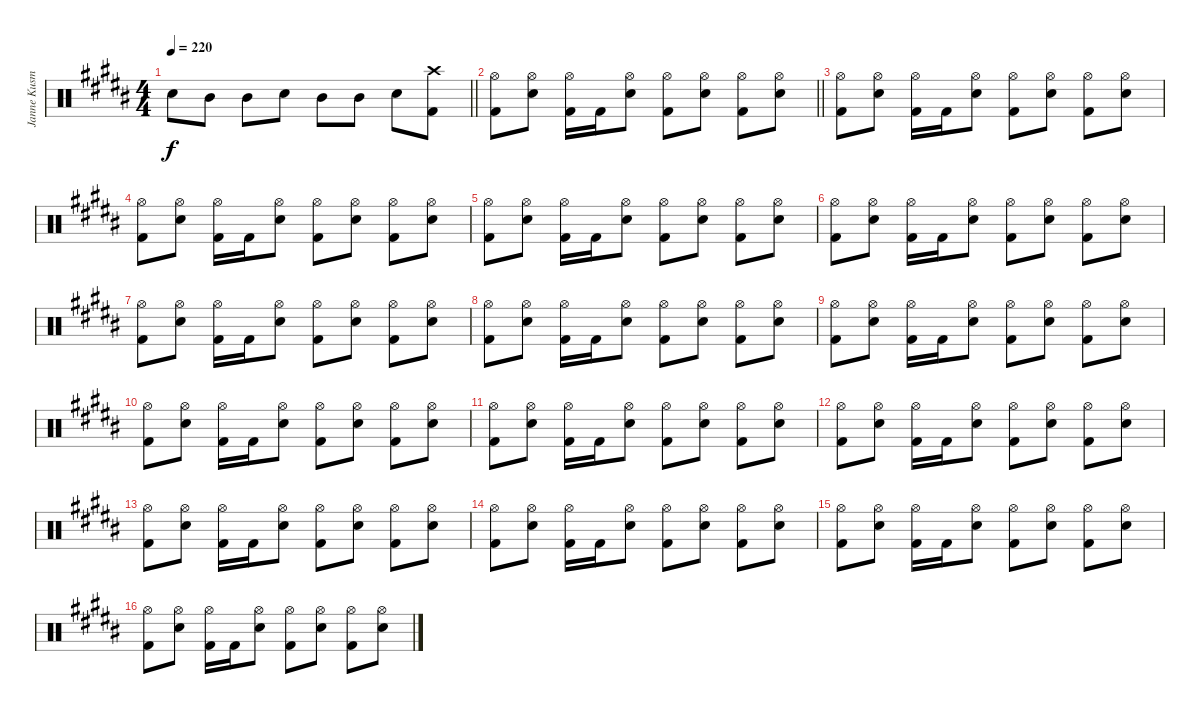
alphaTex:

\track ("Janne Kusmin" "Janne Kusm") {instrument percussion}
\staff {score}
\articulation defaults
\ts (4 4)
\tempo 220
\clef neutral
\barLineRight lightlight
\ks b "Electric Snare (hit)".8{dy f} "Mid Tom (hit)".8 "Mid Tom (hit)".8 "Electric Snare (hit)".8 "Mid Tom (hit)".8 "Mid Tom (hit)".8 "Electric Snare (hit)".8
("Crash high (hit)" "Kick (hit) 2").8 |
\barLineRight lightlight
("Hi-Hat (open)" "Kick (hit) 2").8 ("Hi-Hat (open)" "Electric Snare (hit)").8 ("Hi-Hat (open)" "Kick (hit) 2").16 "Kick (hit) 2".16 ("Hi-Hat (open)" "Electric Snare (hit)").8 ("Hi-Hat (open)" "Kick (hit) 2").8 ("Hi-Hat (open)" "Electric Snare (hit)").8 ("Hi-Hat (open)" "Kick (hit) 2").8 ("Hi-Hat (open)" "Electric Snare (hit)").8 |
("Hi-Hat (open)" "Kick (hit) 2").8 ("Hi-Hat (open)" "Electric Snare (hit)").8 ("Hi-Hat (open)" "Kick (hit) 2").16 "Kick (hit) 2".16 ("Hi-Hat (open)" "Electric Snare (hit)").8 ("Hi-Hat (open)" "Kick (hit) 2").8 ("Hi-Hat (open)" "Electric Snare (hit)").8 ("Hi-Hat (open)" "Kick (hit) 2").8 ("Hi-Hat (open)" "Electric Snare (hit)").8 |
("Hi-Hat (open)" "Kick (hit) 2").8 ("Hi-Hat (open)" "Electric Snare (hit)").8 ("Hi-Hat (open)" "Kick (hit) 2").16 "Kick (hit) 2".16 ("Hi-Hat (open)" "Electric Snare (hit)").8 ("Hi-Hat (open)" "Kick (hit) 2").8 ("Hi-Hat (open)" "Electric Snare (hit)").8 ("Hi-Hat (open)" "Kick (hit) 2").8 ("Hi-Hat (open)" "Electric Snare (hit)").8 |
("Hi-Hat (open)" "Kick (hit) 2").8 ("Hi-Hat (open)" "Electric Snare (hit)").8 ("Hi-Hat (open)" "Kick (hit) 2").16 "Kick (hit) 2".16 ("Hi-Hat (open)" "Electric Snare (hit)").8 ("Hi-Hat (open)" "Kick (hit) 2").8 ("Hi-Hat (open)" "Electric Snare (hit)").8 ("Hi-Hat (open)" "Kick (hit) 2").8 ("Hi-Hat (open)" "Electric Snare (hit)").8 |
("Hi-Hat (open)" "Kick (hit) 2").8 ("Hi-Hat (open)" "Electric Snare (hit)").8 ("Hi-Hat (open)" "Kick (hit) 2").16 "Kick (hit) 2".16 ("Hi-Hat (open)" "Electric Snare (hit)").8 ("Hi-Hat (open)" "Kick (hit) 2").8 ("Hi-Hat (open)" "Electric Snare (hit)").8 ("Hi-Hat (open)" "Kick (hit) 2").8 ("Hi-Hat (open)" "Electric Snare (hit)").8 |
("Hi-Hat (open)" "Kick (hit) 2").8 ("Hi-Hat (open)" "Electric Snare (hit)").8 ("Hi-Hat (open)" "Kick (hit) 2").16 "Kick (hit) 2".16 ("Hi-Hat (open)" "Electric Snare (hit)").8 ("Hi-Hat (open)" "Kick (hit) 2").8 ("Hi-Hat (open)" "Electric Snare (hit)").8 ("Hi-Hat (open)" "Kick (hit) 2").8 ("Hi-Hat (open)" "Electric Snare (hit)").8 |
("Hi-Hat (open)" "Kick (hit) 2").8 ("Hi-Hat (open)" "Electric Snare (hit)").8 ("Hi-Hat (open)" "Kick (hit) 2").16 "Kick (hit) 2".16 ("Hi-Hat (open)" "Electric Snare (hit)").8 ("Hi-Hat (open)" "Kick (hit) 2").8 ("Hi-Hat (open)" "Electric Snare (hit)").8 ("Hi-Hat (open)" "Kick (hit) 2").8 ("Hi-Hat (open)" "Electric Snare (hit)").8 |
("Hi-Hat (open)" "Kick (hit) 2").8 ("Hi-Hat (open)" "Electric Snare (hit)").8 ("Hi-Hat (open)" "Kick (hit) 2").16 "Kick (hit) 2".16 ("Hi-Hat (open)" "Electric Snare (hit)").8 ("Hi-Hat (open)" "Kick (hit) 2").8 ("Hi-Hat (open)" "Electric Snare (hit)").8 ("Hi-Hat (open)" "Kick (hit) 2").8 ("Hi-Hat (open)" "Electric Snare (hit)").8 |
("Hi-Hat (open)" "Kick (hit) 2").8 ("Hi-Hat (open)" "Electric Snare (hit)").8 ("Hi-Hat (open)" "Kick (hit) 2").16 "Kick (hit) 2".16 ("Hi-Hat (open)" "Electric Snare (hit)").8 ("Hi-Hat (open)" "Kick (hit) 2").8 ("Hi-Hat (open)" "Electric Snare (hit)").8 ("Hi-Hat (open)" "Kick (hit) 2").8 ("Hi-Hat (open)" "Electric Snare (hit)").8 |
("Hi-Hat (open)" "Kick (hit) 2").8 ("Hi-Hat (open)" "Electric Snare (hit)").8 ("Hi-Hat (open)" "Kick (hit) 2").16 "Kick (hit) 2".16 ("Hi-Hat (open)" "Electric Snare (hit)").8 ("Hi-Hat (open)" "Kick (hit) 2").8 ("Hi-Hat (open)" "Electric Snare (hit)").8 ("Hi-Hat (open)" "Kick (hit) 2").8 ("Hi-Hat (open)" "Electric Snare (hit)").8 |
("Hi-Hat (open)" "Kick (hit) 2").8 ("Hi-Hat (open)" "Electric Snare (hit)").8 ("Hi-Hat (open)" "Kick (hit) 2").16 "Kick (hit) 2".16 ("Hi-Hat (open)" "Electric Snare (hit)").8 ("Hi-Hat (open)" "Kick (hit) 2").8 ("Hi-Hat (open)" "Electric Snare (hit)").8 ("Hi-Hat (open)" "Kick (hit) 2").8 ("Hi-Hat (open)" "Electric Snare (hit)").8 |
("Hi-Hat (open)" "Kick (hit) 2").8 ("Hi-Hat (open)" "Electric Snare (hit)").8 ("Hi-Hat (open)" "Kick (hit) 2").16 "Kick (hit) 2".16 ("Hi-Hat (open)" "Electric Snare (hit)").8 ("Hi-Hat (open)" "Kick (hit) 2").8 ("Hi-Hat (open)" "Electric Snare (hit)").8 ("Hi-Hat (open)" "Kick (hit) 2").8 ("Hi-Hat (open)" "Electric Snare (hit)").8 |
("Hi-Hat (open)" "Kick (hit) 2").8 ("Hi-Hat (open)" "Electric Snare (hit)").8 ("Hi-Hat (open)" "Kick (hit) 2").16 "Kick (hit) 2".16 ("Hi-Hat (open)" "Electric Snare (hit)").8 ("Hi-Hat (open)" "Kick (hit) 2").8 ("Hi-Hat (open)" "Electric Snare (hit)").8 ("Hi-Hat (open)" "Kick (hit) 2").8 ("Hi-Hat (open)" "Electric Snare (hit)").8 |
("Hi-Hat (open)" "Kick (hit) 2").8 ("Hi-Hat (open)" "Electric Snare (hit)").8 ("Hi-Hat (open)" "Kick (hit) 2").16 "Kick (hit) 2".16 ("Hi-Hat (open)" "Electric Snare (hit)").8 ("Hi-Hat (open)" "Kick (hit) 2").8 ("Hi-Hat (open)" "Electric Snare (hit)").8 ("Hi-Hat (open)" "Kick (hit) 2").8 ("Hi-Hat (open)" "Electric Snare (hit)").8 |
("Hi-Hat (open)" "Kick (hit) 2").8 ("Hi-Hat (open)" "Electric Snare (hit)").8 ("Hi-Hat (open)" "Kick (hit) 2").16 "Kick (hit) 2".16 ("Hi-Hat (open)" "Electric Snare (hit)").8 ("Hi-Hat (open)" "Kick (hit) 2").8 ("Hi-Hat (open)" "Electric Snare (hit)").8 ("Hi-Hat (open)" "Kick (hit) 2").8 ("Hi-Hat (open)" "Electric Snare (hit)").8
